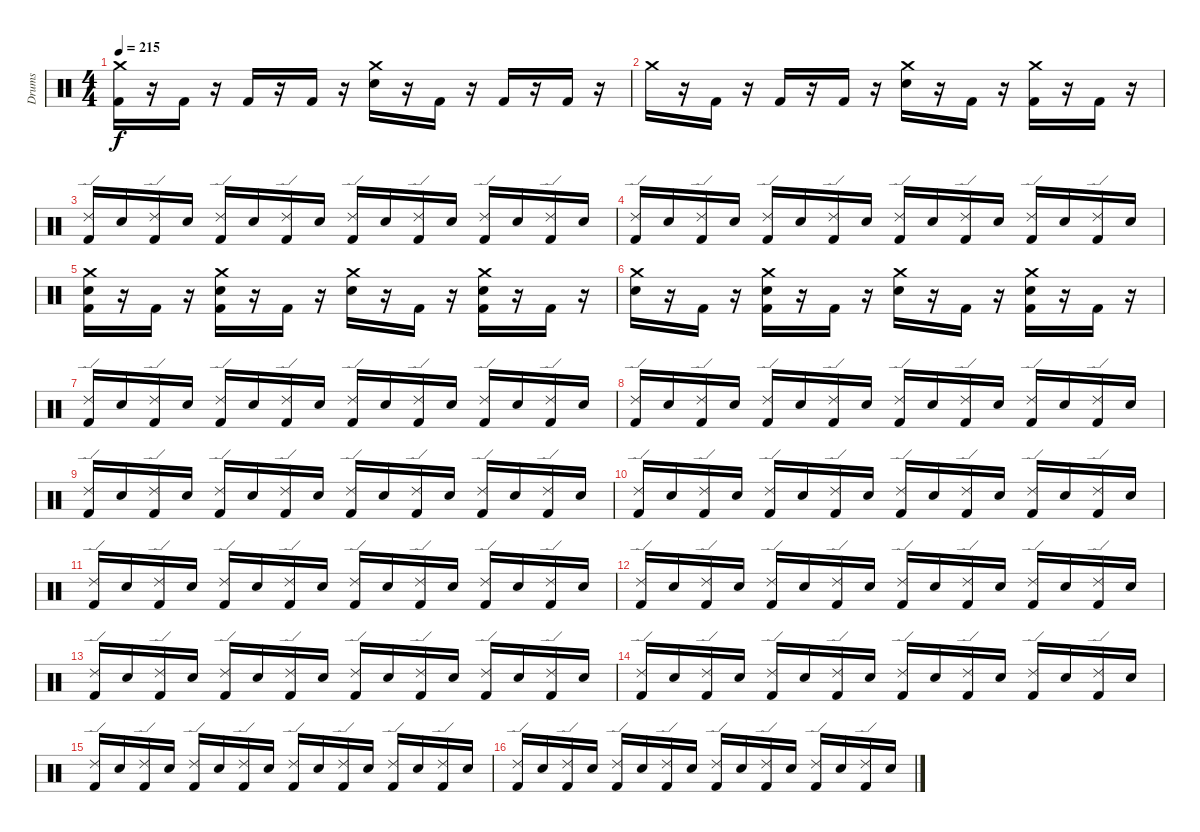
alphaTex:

\track ("Drums" "Drums") {instrument percussion}
\staff {score}
\articulation defaults
\ts (4 4)
\tempo 215
\clef neutral
\ks c
("Crash medium (hit)" "Kick (hit) 2").16{dy f} r.16 "Kick (hit) 2".16 r.16 "Kick (hit) 2".16 r.16 "Kick (hit) 2".16 r.16 ("Crash medium (hit)" "Snare (hit) 2").16 r.16 "Kick (hit) 2".16 r.16 "Kick (hit) 2".16 r.16 "Kick (hit) 2".16 r.16 |
"Crash medium (hit)".16 r.16 "Kick (hit) 2".16 r.16 "Kick (hit) 2".16 r.16 "Kick (hit) 2".16 r.16 ("Crash medium (hit)" "Snare (hit) 2").16 r.16 "Kick (hit) 2".16 r.16 ("Crash medium (hit)" "Kick (hit) 2").16 r.16 "Kick (hit) 2".16 r.16 |
("Ride (edge) 2" "Kick (hit) 2").16 "Snare (hit) 2".16 ("Ride (edge) 2" "Kick (hit) 2").16 "Snare (hit) 2".16 ("Ride (edge) 2" "Kick (hit) 2").16 "Snare (hit) 2".16 ("Ride (edge) 2" "Kick (hit) 2").16 "Snare (hit) 2".16 ("Ride (edge) 2" "Kick (hit) 2").16 "Snare (hit) 2".16 ("Ride (edge) 2" "Kick (hit) 2").16 "Snare (hit) 2".16 ("Ride (edge) 2" "Kick (hit) 2").16 "Snare (hit) 2".16 ("Ride (edge) 2" "Kick (hit) 2").16 "Snare (hit) 2".16 |
("Ride (edge) 2" "Kick (hit) 2").16 "Snare (hit) 2".16 ("Ride (edge) 2" "Kick (hit) 2").16 "Snare (hit) 2".16 ("Ride (edge) 2" "Kick (hit) 2").16 "Snare (hit) 2".16 ("Ride (edge) 2" "Kick (hit) 2").16 "Snare (hit) 2".16 ("Ride (edge) 2" "Kick (hit) 2").16 "Snare (hit) 2".16 ("Ride (edge) 2" "Kick (hit) 2").16 "Snare (hit) 2".16 ("Ride (edge) 2" "Kick (hit) 2").16 "Snare (hit) 2".16 ("Ride (edge) 2" "Kick (hit) 2").16 "Snare (hit) 2".16 |
("Crash medium (hit)" "Snare (hit) 2" "Kick (hit) 2").16 r.16 "Kick (hit) 2".16 r.16 ("Crash medium (hit)" "Snare (hit) 2" "Kick (hit) 2").16 r.16 "Kick (hit) 2".16 r.16 ("Crash medium (hit)" "Snare (hit) 2").16 r.16 "Kick (hit) 2".16 r.16 ("Crash medium (hit)" "Snare (hit) 2" "Kick (hit) 2").16 r.16 "Kick (hit) 2".16 r.16 |
("Crash medium (hit)" "Snare (hit) 2").16 r.16 "Kick (hit) 2".16 r.16 ("Crash medium (hit)" "Snare (hit) 2" "Kick (hit) 2").16 r.16 "Kick (hit) 2".16 r.16 ("Crash medium (hit)" "Snare (hit) 2").16 r.16 "Kick (hit) 2".16 r.16 ("Crash medium (hit)" "Snare (hit) 2" "Kick (hit) 2").16 r.16 "Kick (hit) 2".16 r.16 |
("Ride (edge) 2" "Kick (hit) 2").16 "Snare (hit) 2".16 ("Ride (edge) 2" "Kick (hit) 2").16 "Snare (hit) 2".16 ("Ride (edge) 2" "Kick (hit) 2").16 "Snare (hit) 2".16 ("Ride (edge) 2" "Kick (hit) 2").16 "Snare (hit) 2".16 ("Ride (edge) 2" "Kick (hit) 2").16 "Snare (hit) 2".16 ("Ride (edge) 2" "Kick (hit) 2").16 "Snare (hit) 2".16 ("Ride (edge) 2" "Kick (hit) 2").16 "Snare (hit) 2".16 ("Ride (edge) 2" "Kick (hit) 2").16 "Snare (hit) 2".16 |
("Ride (edge) 2" "Kick (hit) 2").16 "Snare (hit) 2".16 ("Ride (edge) 2" "Kick (hit) 2").16 "Snare (hit) 2".16 ("Ride (edge) 2" "Kick (hit) 2").16 "Snare (hit) 2".16 ("Ride (edge) 2" "Kick (hit) 2").16 "Snare (hit) 2".16 ("Ride (edge) 2" "Kick (hit) 2").16 "Snare (hit) 2".16 ("Ride (edge) 2" "Kick (hit) 2").16 "Snare (hit) 2".16 ("Ride (edge) 2" "Kick (hit) 2").16 "Snare (hit) 2".16 ("Ride (edge) 2" "Kick (hit) 2").16 "Snare (hit) 2".16 |
("Ride (edge) 2" "Kick (hit) 2").16 "Snare (hit) 2".16 ("Ride (edge) 2" "Kick (hit) 2").16 "Snare (hit) 2".16 ("Ride (edge) 2" "Kick (hit) 2").16 "Snare (hit) 2".16 ("Ride (edge) 2" "Kick (hit) 2").16 "Snare (hit) 2".16 ("Ride (edge) 2" "Kick (hit) 2").16 "Snare (hit) 2".16 ("Ride (edge) 2" "Kick (hit) 2").16 "Snare (hit) 2".16 ("Ride (edge) 2" "Kick (hit) 2").16 "Snare (hit) 2".16 ("Ride (edge) 2" "Kick (hit) 2").16 "Snare (hit) 2".16 |
("Ride (edge) 2" "Kick (hit) 2").16 "Snare (hit) 2".16 ("Ride (edge) 2" "Kick (hit) 2").16 "Snare (hit) 2".16 ("Ride (edge) 2" "Kick (hit) 2").16 "Snare (hit) 2".16 ("Ride (edge) 2" "Kick (hit) 2").16 "Snare (hit) 2".16 ("Ride (edge) 2" "Kick (hit) 2").16 "Snare (hit) 2".16 ("Ride (edge) 2" "Kick (hit) 2").16 "Snare (hit) 2".16 ("Ride (edge) 2" "Kick (hit) 2").16 "Snare (hit) 2".16 ("Ride (edge) 2" "Kick (hit) 2").16 "Snare (hit) 2".16 |
("Ride (edge) 2" "Kick (hit) 2").16 "Snare (hit) 2".16 ("Ride (edge) 2" "Kick (hit) 2").16 "Snare (hit) 2".16 ("Ride (edge) 2" "Kick (hit) 2").16 "Snare (hit) 2".16 ("Ride (edge) 2" "Kick (hit) 2").16 "Snare (hit) 2".16 ("Ride (edge) 2" "Kick (hit) 2").16 "Snare (hit) 2".16 ("Ride (edge) 2" "Kick (hit) 2").16 "Snare (hit) 2".16 ("Ride (edge) 2" "Kick (hit) 2").16 "Snare (hit) 2".16 ("Ride (edge) 2" "Kick (hit) 2").16 "Snare (hit) 2".16 |
("Ride (edge) 2" "Kick (hit) 2").16 "Snare (hit) 2".16 ("Ride (edge) 2" "Kick (hit) 2").16 "Snare (hit) 2".16 ("Ride (edge) 2" "Kick (hit) 2").16 "Snare (hit) 2".16 ("Ride (edge) 2" "Kick (hit) 2").16 "Snare (hit) 2".16 ("Ride (edge) 2" "Kick (hit) 2").16 "Snare (hit) 2".16 ("Ride (edge) 2" "Kick (hit) 2").16 "Snare (hit) 2".16 ("Ride (edge) 2" "Kick (hit) 2").16 "Snare (hit) 2".16 ("Ride (edge) 2" "Kick (hit) 2").16 "Snare (hit) 2".16 |
("Ride (edge) 2" "Kick (hit) 2").16 "Snare (hit) 2".16 ("Ride (edge) 2" "Kick (hit) 2").16 "Snare (hit) 2".16 ("Ride (edge) 2" "Kick (hit) 2").16 "Snare (hit) 2".16 ("Ride (edge) 2" "Kick (hit) 2").16 "Snare (hit) 2".16 ("Ride (edge) 2" "Kick (hit) 2").16 "Snare (hit) 2".16 ("Ride (edge) 2" "Kick (hit) 2").16 "Snare (hit) 2".16 ("Ride (edge) 2" "Kick (hit) 2").16 "Snare (hit) 2".16 ("Ride (edge) 2" "Kick (hit) 2").16 "Snare (hit) 2".16 |
("Ride (edge) 2" "Kick (hit) 2").16 "Snare (hit) 2".16 ("Ride (edge) 2" "Kick (hit) 2").16 "Snare (hit) 2".16 ("Ride (edge) 2" "Kick (hit) 2").16 "Snare (hit) 2".16 ("Ride (edge) 2" "Kick (hit) 2").16 "Snare (hit) 2".16 ("Ride (edge) 2" "Kick (hit) 2").16 "Snare (hit) 2".16 ("Ride (edge) 2" "Kick (hit) 2").16 "Snare (hit) 2".16 ("Ride (edge) 2" "Kick (hit) 2").16 "Snare (hit) 2".16 ("Ride (edge) 2" "Kick (hit) 2").16 "Snare (hit) 2".16 |
("Ride (edge) 2" "Kick (hit) 2").16 "Snare (hit) 2".16 ("Ride (edge) 2" "Kick (hit) 2").16 "Snare (hit) 2".16 ("Ride (edge) 2" "Kick (hit) 2").16 "Snare (hit) 2".16 ("Ride (edge) 2" "Kick (hit) 2").16 "Snare (hit) 2".16 ("Ride (edge) 2" "Kick (hit) 2").16 "Snare (hit) 2".16 ("Ride (edge) 2" "Kick (hit) 2").16 "Snare (hit) 2".16 ("Ride (edge) 2" "Kick (hit) 2").16 "Snare (hit) 2".16 ("Ride (edge) 2" "Kick (hit) 2").16 "Snare (hit) 2".16 |
("Ride (edge) 2" "Kick (hit) 2").16 "Snare (hit) 2".16 ("Ride (edge) 2" "Kick (hit) 2").16 "Snare (hit) 2".16 ("Ride (edge) 2" "Kick (hit) 2").16 "Snare (hit) 2".16 ("Ride (edge) 2" "Kick (hit) 2").16 "Snare (hit) 2".16 ("Ride (edge) 2" "Kick (hit) 2").16 "Snare (hit) 2".16 ("Ride (edge) 2" "Kick (hit) 2").16 "Snare (hit) 2".16 ("Ride (edge) 2" "Kick (hit) 2").16 "Snare (hit) 2".16 ("Ride (edge) 2" "Kick (hit) 2").16 "Snare (hit) 2".16
